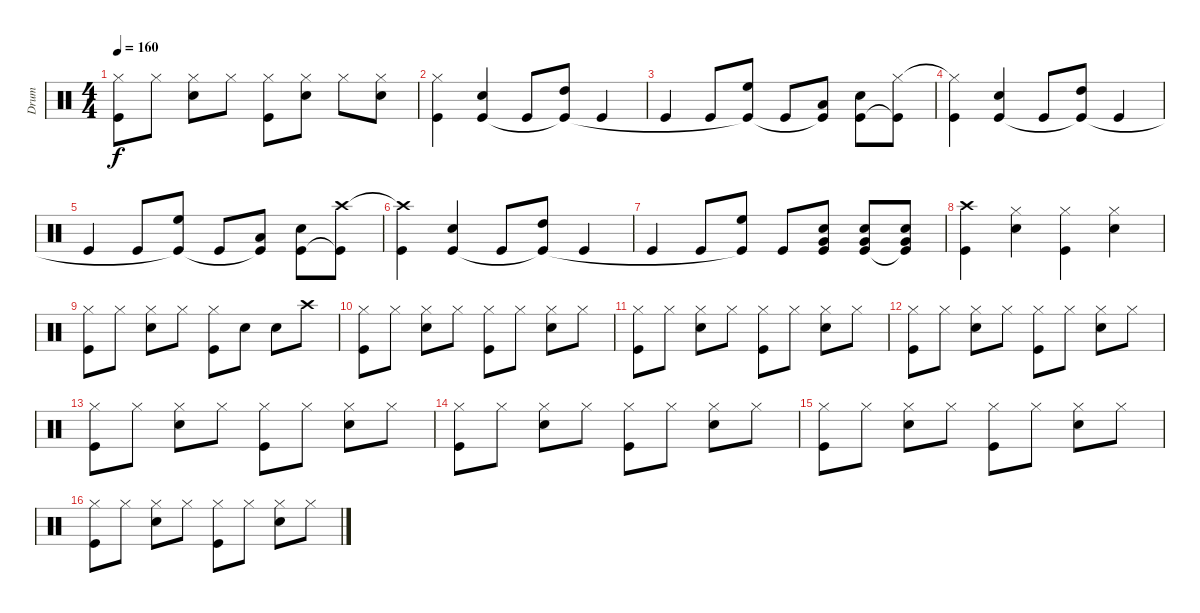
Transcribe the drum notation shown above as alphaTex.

\track ("Drum" "Drum") {instrument percussion}
\staff {score}
\articulation defaults
\ts (4 4)
\tempo 160
\clef neutral
\ks c
("Hi-Hat (closed)" "Kick (hit)").8{dy f} "Hi-Hat (closed)".8 ("Hi-Hat (closed)" "Snare (hit) 2").8 "Hi-Hat (closed)".8 ("Hi-Hat (closed)" "Kick (hit)").8 ("Hi-Hat (closed)" "Snare (hit) 2").8 "Hi-Hat (closed)".8 ("Hi-Hat (closed)" "Snare (hit) 2").8 |
("Hi-Hat (closed)" "Kick (hit)").4 ("Snare (hit) 2" "Kick (hit)").4 "Kick (hit)".8 ("High Tom (hit)" "Kick (hit)"{t}).8 "Kick (hit)".4 |
"Kick (hit)".4 "Kick (hit)".8 ("High Floor Tom (hit)" "Kick (hit)"{t}).8 "Kick (hit)".8 ("Low Tom (hit)" "Kick (hit)"{t}).8 ("Snare (hit) 2" "Kick (hit)").8 ("Hi-Hat (closed)" "Kick (hit)"{t}).8 |
("Hi-Hat (closed)"{t} "Kick (hit)").4 ("Snare (hit) 2" "Kick (hit)").4 "Kick (hit)".8 ("High Tom (hit)" "Kick (hit)"{t}).8 "Kick (hit)".4 |
"Kick (hit)".4 "Kick (hit)".8 ("High Floor Tom (hit)" "Kick (hit)"{t}).8 "Kick (hit)".8 ("Low Tom (hit)" "Kick (hit)"{t}).8 ("Snare (hit) 2" "Kick (hit)").8 ("Crash high (hit)" "Kick (hit)"{t}).8 |
("Crash high (hit)"{t} "Kick (hit)").4 ("Snare (hit) 2" "Kick (hit)").4 "Kick (hit)".8 ("High Tom (hit)" "Kick (hit)"{t}).8 "Kick (hit)".4 |
"Kick (hit)".4 "Kick (hit)".8 ("High Floor Tom (hit)" "Kick (hit)"{t}).8 "Kick (hit)".8 ("Very Low Tom (hit)" "Snare (hit) 2" "Kick (hit)").8 ("Very Low Tom (hit)" "Snare (hit) 2" "Kick (hit)").8 ("Very Low Tom (hit)" "Snare (hit) 2" "Kick (hit)"{t}).8 |
("Crash high (hit)" "Kick (hit)").4 ("Hi-Hat (closed)" "Snare (hit) 2").4 ("Hi-Hat (closed)" "Kick (hit)").4 ("Hi-Hat (closed)" "Snare (hit) 2").4 |
("Hi-Hat (closed)" "Kick (hit)").8 "Hi-Hat (closed)".8 ("Hi-Hat (closed)" "Snare (hit) 2").8 "Hi-Hat (closed)".8 ("Hi-Hat (closed)" "Kick (hit)").8 "Snare (hit) 2".8 "Snare (hit) 2".8 "Crash high (hit)".8 |
("Hi-Hat (closed)" "Kick (hit)").8 "Hi-Hat (closed)".8 ("Hi-Hat (closed)" "Snare (hit) 2").8 "Hi-Hat (closed)".8 ("Hi-Hat (closed)" "Kick (hit)").8 "Hi-Hat (closed)".8 ("Hi-Hat (closed)" "Snare (hit) 2").8 "Hi-Hat (closed)".8 |
("Hi-Hat (closed)" "Kick (hit)").8 "Hi-Hat (closed)".8 ("Hi-Hat (closed)" "Snare (hit) 2").8 "Hi-Hat (closed)".8 ("Hi-Hat (closed)" "Kick (hit)").8 "Hi-Hat (closed)".8 ("Hi-Hat (closed)" "Snare (hit) 2").8 "Hi-Hat (closed)".8 |
("Hi-Hat (closed)" "Kick (hit)").8 "Hi-Hat (closed)".8 ("Hi-Hat (closed)" "Snare (hit) 2").8 "Hi-Hat (closed)".8 ("Hi-Hat (closed)" "Kick (hit)").8 "Hi-Hat (closed)".8 ("Hi-Hat (closed)" "Snare (hit) 2").8 "Hi-Hat (closed)".8 |
("Hi-Hat (closed)" "Kick (hit)").8 "Hi-Hat (closed)".8 ("Hi-Hat (closed)" "Snare (hit) 2").8 "Hi-Hat (closed)".8 ("Hi-Hat (closed)" "Kick (hit)").8 "Hi-Hat (closed)".8 ("Hi-Hat (closed)" "Snare (hit) 2").8 "Hi-Hat (closed)".8 |
("Hi-Hat (closed)" "Kick (hit)").8 "Hi-Hat (closed)".8 ("Hi-Hat (closed)" "Snare (hit) 2").8 "Hi-Hat (closed)".8 ("Hi-Hat (closed)" "Kick (hit)").8 "Hi-Hat (closed)".8 ("Hi-Hat (closed)" "Snare (hit) 2").8 "Hi-Hat (closed)".8 |
("Hi-Hat (closed)" "Kick (hit)").8 "Hi-Hat (closed)".8 ("Hi-Hat (closed)" "Snare (hit) 2").8 "Hi-Hat (closed)".8 ("Hi-Hat (closed)" "Kick (hit)").8 "Hi-Hat (closed)".8 ("Hi-Hat (closed)" "Snare (hit) 2").8 "Hi-Hat (closed)".8 |
("Hi-Hat (closed)" "Kick (hit)").8 "Hi-Hat (closed)".8 ("Hi-Hat (closed)" "Snare (hit) 2").8 "Hi-Hat (closed)".8 ("Hi-Hat (closed)" "Kick (hit)").8 "Hi-Hat (closed)".8 ("Hi-Hat (closed)" "Snare (hit) 2").8 "Hi-Hat (closed)".8
